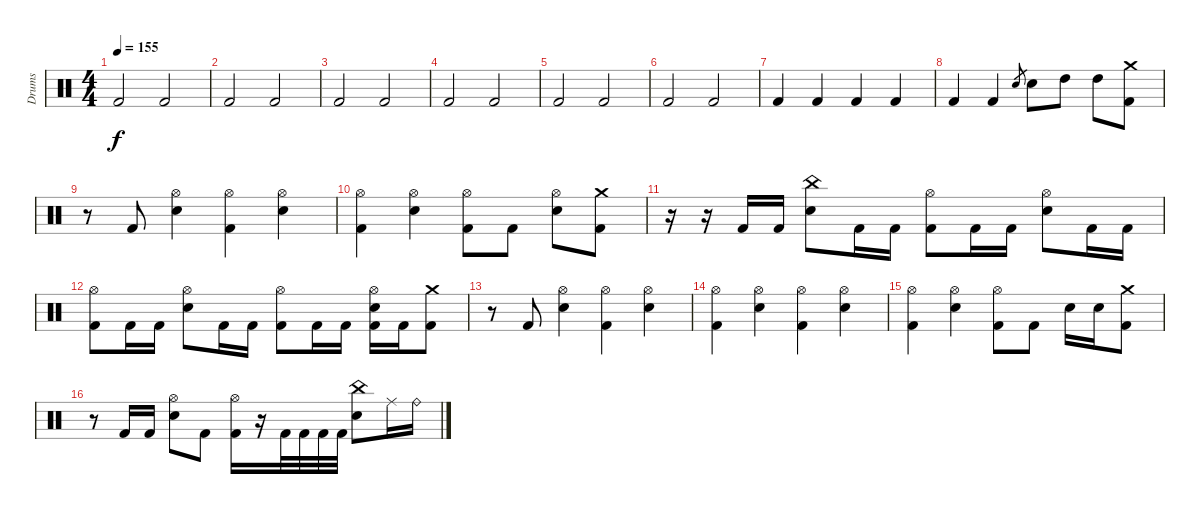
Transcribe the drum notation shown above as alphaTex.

\track ("Drums" "Drums") {instrument percussion}
\staff {score}
\articulation defaults
\ts (4 4)
\tempo 155
\clef neutral
\ks c "Kick (hit) 2".2{dy f} "Kick (hit) 2".2
|
"Kick (hit) 2".2 "Kick (hit) 2".2 |
"Kick (hit) 2".2 "Kick (hit) 2".2 |
"Kick (hit) 2".2 "Kick (hit) 2".2 |
"Kick (hit) 2".2 "Kick (hit) 2".2 |
"Kick (hit) 2".2 "Kick (hit) 2".2 |
"Kick (hit) 2".4 "Kick (hit) 2".4 "Kick (hit) 2".4 "Kick (hit) 2".4 |
"Kick (hit) 2".4 "Kick (hit) 2".4 "Snare (hit) 2".8{gr} "Snare (hit) 2".8 "High Tom (hit)".8 "High Tom (hit)".8 ("Crash medium (hit)" "Kick (hit) 2").8 |
r.8 "Kick (hit) 2".8 ("Hi-Hat (open)" "Snare (hit) 2").4 ("Hi-Hat (open)" "Kick (hit) 2").4 ("Hi-Hat (open)" "Snare (hit) 2").4 |
("Hi-Hat (open)" "Kick (hit) 2").4 ("Hi-Hat (open)" "Snare (hit) 2").4 ("Hi-Hat (open)" "Kick (hit) 2").8 "Kick (hit) 2".8 ("Hi-Hat (open)" "Snare (hit) 2").8 ("Crash medium (hit)" "Kick (hit) 2").8 |
r.16 r.16 "Kick (hit) 2".16 "Kick (hit) 2".16 ("China (hit)" "Snare (hit) 2").8 "Kick (hit) 2".16 "Kick (hit) 2".16 ("Hi-Hat (open)" "Kick (hit) 2").8 "Kick (hit) 2".16 "Kick (hit) 2".16 ("Hi-Hat (open)" "Snare (hit) 2").8 "Kick (hit) 2".16 "Kick (hit) 2".16 |
("Hi-Hat (open)" "Kick (hit) 2").8 "Kick (hit) 2".16 "Kick (hit) 2".16 ("Hi-Hat (open)" "Snare (hit) 2").8 "Kick (hit) 2".16 "Kick (hit) 2".16 ("Hi-Hat (open)" "Kick (hit) 2").8 "Kick (hit) 2".16 "Kick (hit) 2".16 ("Hi-Hat (open)" "Snare (hit) 2" "Kick (hit) 2").16 "Kick (hit) 2".16 ("Crash medium (hit)" "Kick (hit) 2").8 |
r.8 "Kick (hit) 2".8 ("Hi-Hat (open)" "Snare (hit) 2").4 ("Hi-Hat (open)" "Kick (hit) 2").4 ("Hi-Hat (open)" "Snare (hit) 2").4 |
("Hi-Hat (open)" "Kick (hit) 2").4 ("Hi-Hat (open)" "Snare (hit) 2").4 ("Hi-Hat (open)" "Kick (hit) 2").4 ("Hi-Hat (open)" "Snare (hit) 2").4 |
("Hi-Hat (open)" "Kick (hit) 2").4 ("Hi-Hat (open)" "Snare (hit) 2").4 ("Hi-Hat (open)" "Kick (hit) 2").8 "Kick (hit) 2".8 "Snare (hit) 2".16 "Snare (hit) 2".16 ("Crash medium (hit)" "Kick (hit) 2").8 |
r.8 "Kick (hit) 2".16 "Kick (hit) 2".16 ("Hi-Hat (open)" "Snare (hit) 2").8 "Kick (hit) 2".8 ("Hi-Hat (open)" "Kick (hit) 2").16 r.16 "Kick (hit) 2".32 "Kick (hit) 2".32 "Kick (hit) 2".32 "Kick (hit) 2".32 ("China (hit)" "Snare (hit) 2").8 "Ride (middle)".16 "Ride (bell)".16
